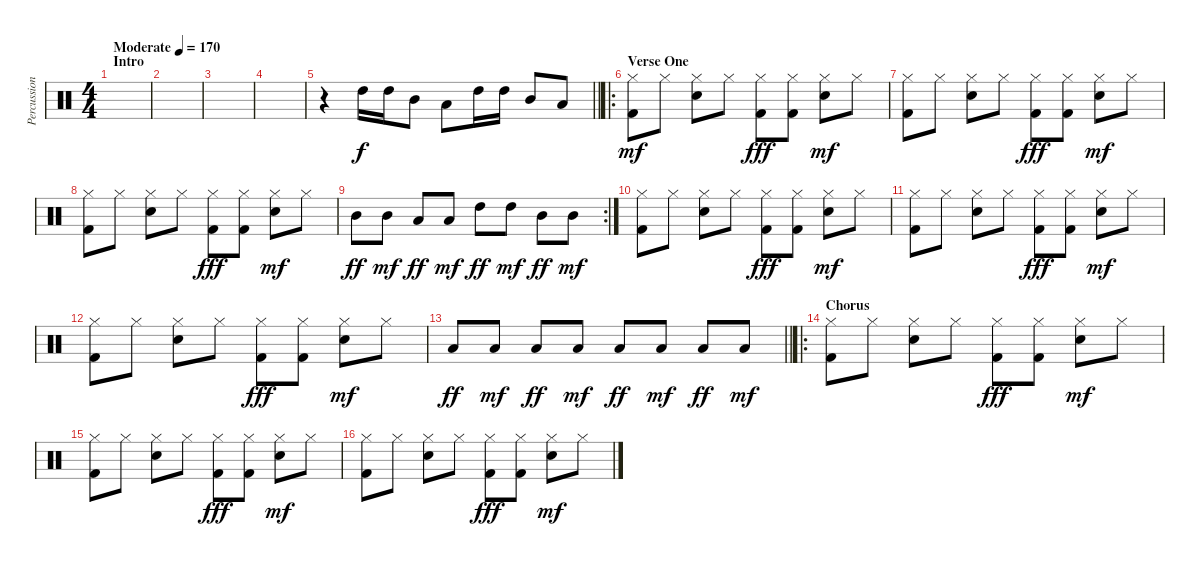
\track ("Percussion" "Percussion") {instrument percussion}
\staff {score}
\articulation defaults
\ts (4 4)
\section ("" "Intro")
\tempo (170 "Moderate")
\clef neutral
\ks c
|
|
|
|
\barLineRight lightlight
r.4 "High Tom (hit)".16 "High Tom (hit)".16 "Mid Tom (hit)".8 "Low Tom (hit)".8 "High Tom (hit)".16 "High Tom (hit)".16 "Mid Tom (hit)".8 "Low Tom (hit)".8 |
\ro
\section ("" "Verse One")
("Kick (hit) 2" "Hi-Hat (closed)").8{dy mf} "Hi-Hat (closed)".8 ("Hi-Hat (closed)" "Electric Snare (hit)").8 "Hi-Hat (closed)".8 ("Hi-Hat (closed)" "Kick (hit) 2").8{dy fff} ("Hi-Hat (closed)" "Kick (hit) 2").8 ("Hi-Hat (closed)" "Electric Snare (hit)").8{dy mf} "Hi-Hat (closed)".8 |
("Kick (hit) 2" "Hi-Hat (closed)").8 "Hi-Hat (closed)".8 ("Hi-Hat (closed)" "Electric Snare (hit)").8 "Hi-Hat (closed)".8 ("Hi-Hat (closed)" "Kick (hit) 2").8{dy fff} ("Hi-Hat (closed)" "Kick (hit) 2").8 ("Hi-Hat (closed)" "Electric Snare (hit)").8{dy mf} "Hi-Hat (closed)".8 |
("Kick (hit) 2" "Hi-Hat (closed)").8 "Hi-Hat (closed)".8 ("Hi-Hat (closed)" "Electric Snare (hit)").8 "Hi-Hat (closed)".8 ("Hi-Hat (closed)" "Kick (hit) 2").8{dy fff} ("Hi-Hat (closed)" "Kick (hit) 2").8 ("Hi-Hat (closed)" "Electric Snare (hit)").8{dy mf} "Hi-Hat (closed)".8 |
\rc 2 "Mid Tom (hit)".8{dy ff} "Mid Tom (hit)".8{dy mf} "Low Tom (hit)".8{dy ff} "Low Tom (hit)".8{dy mf} "High Tom (hit)".8{dy ff} "High Tom (hit)".8{dy mf} "Mid Tom (hit)".8{dy ff} "Mid Tom (hit)".8{dy mf}
|
("Kick (hit) 2" "Hi-Hat (closed)").8 "Hi-Hat (closed)".8 ("Hi-Hat (closed)" "Electric Snare (hit)").8 "Hi-Hat (closed)".8 ("Hi-Hat (closed)" "Kick (hit) 2").8{dy fff} ("Hi-Hat (closed)" "Kick (hit) 2").8 ("Hi-Hat (closed)" "Electric Snare (hit)").8{dy mf} "Hi-Hat (closed)".8 |
("Kick (hit) 2" "Hi-Hat (closed)").8 "Hi-Hat (closed)".8 ("Hi-Hat (closed)" "Electric Snare (hit)").8 "Hi-Hat (closed)".8 ("Hi-Hat (closed)" "Kick (hit) 2").8{dy fff} ("Hi-Hat (closed)" "Kick (hit) 2").8 ("Hi-Hat (closed)" "Electric Snare (hit)").8{dy mf} "Hi-Hat (closed)".8 |
("Kick (hit) 2" "Hi-Hat (closed)").8 "Hi-Hat (closed)".8 ("Hi-Hat (closed)" "Electric Snare (hit)").8 "Hi-Hat (closed)".8 ("Hi-Hat (closed)" "Kick (hit) 2").8{dy fff} ("Hi-Hat (closed)" "Kick (hit) 2").8 ("Hi-Hat (closed)" "Electric Snare (hit)").8{dy mf} "Hi-Hat (closed)".8 |
\barLineRight lightlight "Low Tom (hit)".8{dy ff} "Low Tom (hit)".8{dy mf} "Low Tom (hit)".8{dy ff} "Low Tom (hit)".8{dy mf} "Low Tom (hit)".8{dy ff} "Low Tom (hit)".8{dy mf} "Low Tom (hit)".8{dy ff} "Low Tom (hit)".8{dy mf}
|
\ro
\section ("" "Chorus")
("Kick (hit) 2" "Hi-Hat (closed)").8 "Hi-Hat (closed)".8 ("Hi-Hat (closed)" "Electric Snare (hit)").8 "Hi-Hat (closed)".8 ("Hi-Hat (closed)" "Kick (hit) 2").8{dy fff} ("Hi-Hat (closed)" "Kick (hit) 2").8 ("Hi-Hat (closed)" "Electric Snare (hit)").8{dy mf} "Hi-Hat (closed)".8 |
("Kick (hit) 2" "Hi-Hat (closed)").8 "Hi-Hat (closed)".8 ("Hi-Hat (closed)" "Electric Snare (hit)").8 "Hi-Hat (closed)".8 ("Hi-Hat (closed)" "Kick (hit) 2").8{dy fff} ("Hi-Hat (closed)" "Kick (hit) 2").8 ("Hi-Hat (closed)" "Electric Snare (hit)").8{dy mf} "Hi-Hat (closed)".8 |
("Kick (hit) 2" "Hi-Hat (closed)").8 "Hi-Hat (closed)".8 ("Hi-Hat (closed)" "Electric Snare (hit)").8 "Hi-Hat (closed)".8 ("Hi-Hat (closed)" "Kick (hit) 2").8{dy fff} ("Hi-Hat (closed)" "Kick (hit) 2").8 ("Hi-Hat (closed)" "Electric Snare (hit)").8{dy mf} "Hi-Hat (closed)".8
